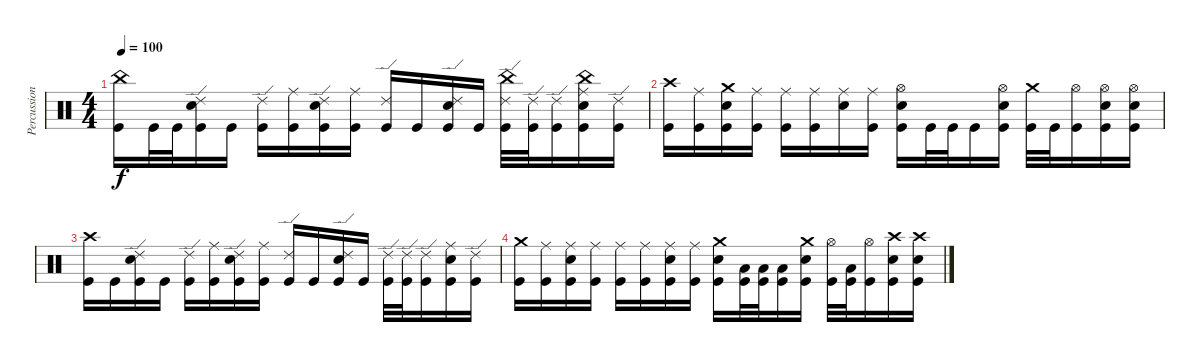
\track ("Percussion" "Percussion") {instrument percussion}
\staff {score}
\articulation defaults
\ts (4 4)
\tempo 100
\clef neutral
\ks c
("China (hit)" "Kick (hit)").16{dy f} "Kick (hit)".32 "Kick (hit)".32 ("Ride (edge) 2" "Snare (hit) 2" "Kick (hit)").16 "Kick (hit)".16 ("Ride (edge) 2" "Kick (hit)").16 ("Ride (middle)" "Kick (hit)").16 ("Ride (edge) 2" "Snare (hit) 2" "Kick (hit)").16 ("Ride (middle)" "Kick (hit)").16 ("Ride (edge) 2" "Kick (hit)").16 "Kick (hit)".16 ("Ride (edge) 2" "Snare (hit) 2" "Kick (hit)").16 "Kick (hit)".16 ("China (hit)" "Ride (edge) 2" "Kick (hit)").32 ("Ride (edge) 2" "Kick (hit)").32 ("Ride (edge) 2" "Kick (hit)").16 ("China (hit)" "Ride (middle)" "Snare (hit) 2" "Kick (hit)").16 ("Ride (edge) 2" "Kick (hit)").16 |
("Crash high (hit)" "Kick (hit)").16 ("Ride (middle)" "Kick (hit)").16 ("Crash medium (hit)" "Snare (hit) 2" "Kick (hit)").16 ("Ride (middle)" "Kick (hit)").16 ("Ride (middle)" "Kick (hit)").16 ("Ride (middle)" "Kick (hit)").16 ("Ride (middle)" "Snare (hit) 2").16 ("Ride (middle)" "Kick (hit)").16 ("Hi-Hat (open)" "Snare (hit) 2" "Kick (hit)").16 "Kick (hit)".32 "Kick (hit)".32 "Kick (hit)".16 ("Hi-Hat (open)" "Snare (hit) 2" "Kick (hit)").16 ("Crash medium (hit)" "Kick (hit)").32 "Kick (hit)".32 ("Hi-Hat (open)" "Kick (hit)").16 ("Hi-Hat (open)" "Snare (hit) 2" "Kick (hit)").16 ("Hi-Hat (open)" "Snare (hit) 2" "Kick (hit)").16 |
("Crash high (hit)" "Kick (hit)").16 "Kick (hit)".16 ("Ride (edge) 2" "Snare (hit) 2" "Kick (hit)").16 "Kick (hit)".16 ("Ride (edge) 2" "Kick (hit)").16 ("Ride (middle)" "Kick (hit)").16 ("Ride (edge) 2" "Snare (hit) 2" "Kick (hit)").16 ("Ride (middle)" "Kick (hit)").16 ("Ride (edge) 2" "Kick (hit)").16 "Kick (hit)".16 ("Ride (edge) 2" "Snare (hit) 2" "Kick (hit)").16 "Kick (hit)".16 ("Ride (edge) 2" "Kick (hit)").32 ("Ride (edge) 2" "Kick (hit)").32 ("Ride (edge) 2" "Kick (hit)").16 ("Ride (middle)" "Snare (hit) 2" "Kick (hit)").16 ("Ride (edge) 2" "Kick (hit)").16 |
("Crash medium (hit)" "Kick (hit)").16 ("Ride (middle)" "Kick (hit)").16 ("Ride (middle)" "Snare (hit) 2" "Kick (hit)").16 ("Ride (middle)" "Kick (hit)").16 ("Ride (middle)" "Kick (hit)").16 ("Ride (middle)" "Kick (hit)").16 ("Ride (middle)" "Snare (hit) 2" "Kick (hit)").16 ("Ride (middle)" "Kick (hit)").16 ("Crash medium (hit)" "Snare (hit) 2" "Kick (hit)").16 ("Low Floor Tom (hit)" "Kick (hit)").32 ("Low Floor Tom (hit)" "Kick (hit)").32 ("Low Floor Tom (hit)" "Kick (hit)").16 ("Crash medium (hit)" "Snare (hit) 2" "Kick (hit)").16 ("Hi-Hat (open)" "Kick (hit)").32 ("Low Floor Tom (hit)" "Kick (hit)").32 ("Hi-Hat (open)" "Kick (hit)").16 ("Crash high (hit)" "Snare (hit) 2" "Kick (hit)").16 ("Crash high (hit)" "Snare (hit) 2" "Kick (hit)").16
